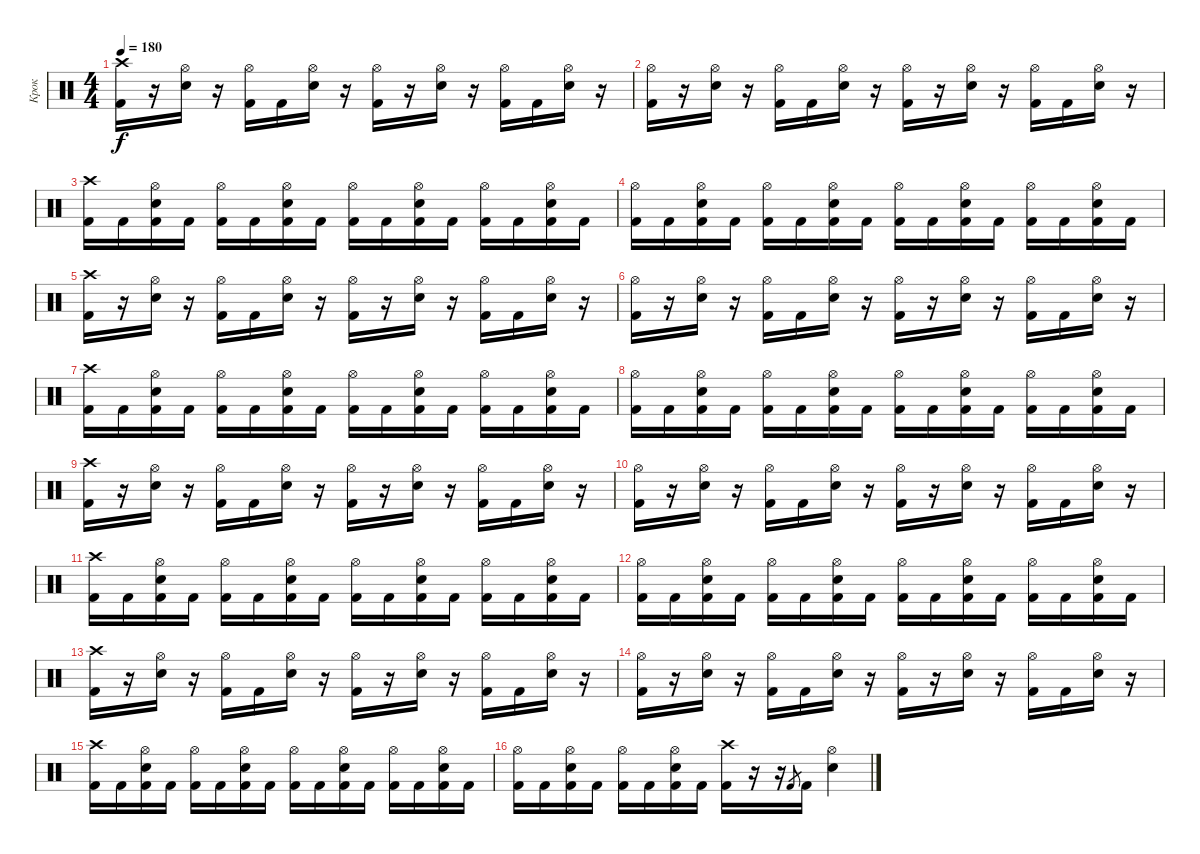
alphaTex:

\track ("Крок" "Крок") {instrument percussion}
\staff {score}
\articulation defaults
\ts (4 4)
\tempo 180
\clef neutral
\ks c
("Kick (hit) 2" "Crash high (hit)").16{dy f} r.16 ("Electric Snare (hit)" "Hi-Hat (open)").16 r.16 ("Kick (hit) 2" "Hi-Hat (open)").16 "Kick (hit) 2".16 ("Electric Snare (hit)" "Hi-Hat (open)").16 r.16 ("Kick (hit) 2" "Hi-Hat (open)").16 r.16 ("Electric Snare (hit)" "Hi-Hat (open)").16 r.16 ("Kick (hit) 2" "Hi-Hat (open)").16 "Kick (hit) 2".16 ("Electric Snare (hit)" "Hi-Hat (open)").16 r.16 |
("Kick (hit) 2" "Hi-Hat (open)").16 r.16 ("Electric Snare (hit)" "Hi-Hat (open)").16 r.16 ("Kick (hit) 2" "Hi-Hat (open)").16 "Kick (hit) 2".16 ("Electric Snare (hit)" "Hi-Hat (open)").16 r.16 ("Kick (hit) 2" "Hi-Hat (open)").16 r.16 ("Electric Snare (hit)" "Hi-Hat (open)").16 r.16 ("Kick (hit) 2" "Hi-Hat (open)").16 "Kick (hit) 2".16 ("Electric Snare (hit)" "Hi-Hat (open)").16 r.16 |
("Kick (hit) 2" "Crash high (hit)").16 "Kick (hit) 2".16 ("Kick (hit) 2" "Electric Snare (hit)" "Hi-Hat (open)").16 "Kick (hit) 2".16 ("Kick (hit) 2" "Hi-Hat (open)").16 "Kick (hit) 2".16 ("Kick (hit) 2" "Electric Snare (hit)" "Hi-Hat (open)").16 "Kick (hit) 2".16 ("Kick (hit) 2" "Hi-Hat (open)").16 "Kick (hit) 2".16 ("Kick (hit) 2" "Electric Snare (hit)" "Hi-Hat (open)").16 "Kick (hit) 2".16 ("Kick (hit) 2" "Hi-Hat (open)").16 "Kick (hit) 2".16 ("Kick (hit) 2" "Electric Snare (hit)" "Hi-Hat (open)").16 "Kick (hit) 2".16 |
("Kick (hit) 2" "Hi-Hat (open)").16 "Kick (hit) 2".16 ("Kick (hit) 2" "Electric Snare (hit)" "Hi-Hat (open)").16 "Kick (hit) 2".16 ("Kick (hit) 2" "Hi-Hat (open)").16 "Kick (hit) 2".16 ("Kick (hit) 2" "Electric Snare (hit)" "Hi-Hat (open)").16 "Kick (hit) 2".16 ("Kick (hit) 2" "Hi-Hat (open)").16 "Kick (hit) 2".16 ("Kick (hit) 2" "Electric Snare (hit)" "Hi-Hat (open)").16 "Kick (hit) 2".16 ("Kick (hit) 2" "Hi-Hat (open)").16 "Kick (hit) 2".16 ("Kick (hit) 2" "Electric Snare (hit)" "Hi-Hat (open)").16 "Kick (hit) 2".16 |
("Kick (hit) 2" "Crash high (hit)").16 r.16 ("Electric Snare (hit)" "Hi-Hat (open)").16 r.16 ("Kick (hit) 2" "Hi-Hat (open)").16 "Kick (hit) 2".16 ("Electric Snare (hit)" "Hi-Hat (open)").16 r.16 ("Kick (hit) 2" "Hi-Hat (open)").16 r.16 ("Electric Snare (hit)" "Hi-Hat (open)").16 r.16 ("Kick (hit) 2" "Hi-Hat (open)").16 "Kick (hit) 2".16 ("Electric Snare (hit)" "Hi-Hat (open)").16 r.16 |
("Kick (hit) 2" "Hi-Hat (open)").16 r.16 ("Electric Snare (hit)" "Hi-Hat (open)").16 r.16 ("Kick (hit) 2" "Hi-Hat (open)").16 "Kick (hit) 2".16 ("Electric Snare (hit)" "Hi-Hat (open)").16 r.16 ("Kick (hit) 2" "Hi-Hat (open)").16 r.16 ("Electric Snare (hit)" "Hi-Hat (open)").16 r.16 ("Kick (hit) 2" "Hi-Hat (open)").16 "Kick (hit) 2".16 ("Electric Snare (hit)" "Hi-Hat (open)").16 r.16 |
("Kick (hit) 2" "Crash high (hit)").16 "Kick (hit) 2".16 ("Kick (hit) 2" "Electric Snare (hit)" "Hi-Hat (open)").16 "Kick (hit) 2".16 ("Kick (hit) 2" "Hi-Hat (open)").16 "Kick (hit) 2".16 ("Kick (hit) 2" "Electric Snare (hit)" "Hi-Hat (open)").16 "Kick (hit) 2".16 ("Kick (hit) 2" "Hi-Hat (open)").16 "Kick (hit) 2".16 ("Kick (hit) 2" "Electric Snare (hit)" "Hi-Hat (open)").16 "Kick (hit) 2".16 ("Kick (hit) 2" "Hi-Hat (open)").16 "Kick (hit) 2".16 ("Kick (hit) 2" "Electric Snare (hit)" "Hi-Hat (open)").16 "Kick (hit) 2".16 |
("Kick (hit) 2" "Hi-Hat (open)").16 "Kick (hit) 2".16 ("Kick (hit) 2" "Electric Snare (hit)" "Hi-Hat (open)").16 "Kick (hit) 2".16 ("Kick (hit) 2" "Hi-Hat (open)").16 "Kick (hit) 2".16 ("Kick (hit) 2" "Electric Snare (hit)" "Hi-Hat (open)").16 "Kick (hit) 2".16 ("Kick (hit) 2" "Hi-Hat (open)").16 "Kick (hit) 2".16 ("Kick (hit) 2" "Electric Snare (hit)" "Hi-Hat (open)").16 "Kick (hit) 2".16 ("Kick (hit) 2" "Hi-Hat (open)").16 "Kick (hit) 2".16 ("Kick (hit) 2" "Electric Snare (hit)" "Hi-Hat (open)").16 "Kick (hit) 2".16 |
("Kick (hit) 2" "Crash high (hit)").16 r.16 ("Electric Snare (hit)" "Hi-Hat (open)").16 r.16 ("Kick (hit) 2" "Hi-Hat (open)").16 "Kick (hit) 2".16 ("Electric Snare (hit)" "Hi-Hat (open)").16 r.16 ("Kick (hit) 2" "Hi-Hat (open)").16 r.16 ("Electric Snare (hit)" "Hi-Hat (open)").16 r.16 ("Kick (hit) 2" "Hi-Hat (open)").16 "Kick (hit) 2".16 ("Electric Snare (hit)" "Hi-Hat (open)").16 r.16 |
("Kick (hit) 2" "Hi-Hat (open)").16 r.16 ("Electric Snare (hit)" "Hi-Hat (open)").16 r.16 ("Kick (hit) 2" "Hi-Hat (open)").16 "Kick (hit) 2".16 ("Electric Snare (hit)" "Hi-Hat (open)").16 r.16 ("Kick (hit) 2" "Hi-Hat (open)").16 r.16 ("Electric Snare (hit)" "Hi-Hat (open)").16 r.16 ("Kick (hit) 2" "Hi-Hat (open)").16 "Kick (hit) 2".16 ("Electric Snare (hit)" "Hi-Hat (open)").16 r.16 |
("Kick (hit) 2" "Crash high (hit)").16 "Kick (hit) 2".16 ("Kick (hit) 2" "Electric Snare (hit)" "Hi-Hat (open)").16 "Kick (hit) 2".16 ("Kick (hit) 2" "Hi-Hat (open)").16 "Kick (hit) 2".16 ("Kick (hit) 2" "Electric Snare (hit)" "Hi-Hat (open)").16 "Kick (hit) 2".16 ("Kick (hit) 2" "Hi-Hat (open)").16 "Kick (hit) 2".16 ("Kick (hit) 2" "Electric Snare (hit)" "Hi-Hat (open)").16 "Kick (hit) 2".16 ("Kick (hit) 2" "Hi-Hat (open)").16 "Kick (hit) 2".16 ("Kick (hit) 2" "Electric Snare (hit)" "Hi-Hat (open)").16 "Kick (hit) 2".16 |
("Kick (hit) 2" "Hi-Hat (open)").16 "Kick (hit) 2".16 ("Kick (hit) 2" "Electric Snare (hit)" "Hi-Hat (open)").16 "Kick (hit) 2".16 ("Kick (hit) 2" "Hi-Hat (open)").16 "Kick (hit) 2".16 ("Kick (hit) 2" "Electric Snare (hit)" "Hi-Hat (open)").16 "Kick (hit) 2".16 ("Kick (hit) 2" "Hi-Hat (open)").16 "Kick (hit) 2".16 ("Kick (hit) 2" "Electric Snare (hit)" "Hi-Hat (open)").16 "Kick (hit) 2".16 ("Kick (hit) 2" "Hi-Hat (open)").16 "Kick (hit) 2".16 ("Kick (hit) 2" "Electric Snare (hit)" "Hi-Hat (open)").16 "Kick (hit) 2".16 |
("Kick (hit) 2" "Crash high (hit)").16 r.16 ("Electric Snare (hit)" "Hi-Hat (open)").16 r.16 ("Kick (hit) 2" "Hi-Hat (open)").16 "Kick (hit) 2".16 ("Electric Snare (hit)" "Hi-Hat (open)").16 r.16 ("Kick (hit) 2" "Hi-Hat (open)").16 r.16 ("Electric Snare (hit)" "Hi-Hat (open)").16 r.16 ("Kick (hit) 2" "Hi-Hat (open)").16 "Kick (hit) 2".16 ("Electric Snare (hit)" "Hi-Hat (open)").16 r.16 |
("Kick (hit) 2" "Hi-Hat (open)").16 r.16 ("Electric Snare (hit)" "Hi-Hat (open)").16 r.16 ("Kick (hit) 2" "Hi-Hat (open)").16 "Kick (hit) 2".16 ("Electric Snare (hit)" "Hi-Hat (open)").16 r.16 ("Kick (hit) 2" "Hi-Hat (open)").16 r.16 ("Electric Snare (hit)" "Hi-Hat (open)").16 r.16 ("Kick (hit) 2" "Hi-Hat (open)").16 "Kick (hit) 2".16 ("Electric Snare (hit)" "Hi-Hat (open)").16 r.16 |
("Kick (hit) 2" "Crash high (hit)").16 "Kick (hit) 2".16 ("Kick (hit) 2" "Electric Snare (hit)" "Hi-Hat (open)").16 "Kick (hit) 2".16 ("Kick (hit) 2" "Hi-Hat (open)").16 "Kick (hit) 2".16 ("Kick (hit) 2" "Electric Snare (hit)" "Hi-Hat (open)").16 "Kick (hit) 2".16 ("Kick (hit) 2" "Hi-Hat (open)").16 "Kick (hit) 2".16 ("Kick (hit) 2" "Electric Snare (hit)" "Hi-Hat (open)").16 "Kick (hit) 2".16 ("Kick (hit) 2" "Hi-Hat (open)").16 "Kick (hit) 2".16 ("Kick (hit) 2" "Electric Snare (hit)" "Hi-Hat (open)").16 "Kick (hit) 2".16 |
("Kick (hit) 2" "Hi-Hat (open)").16 "Kick (hit) 2".16 ("Kick (hit) 2" "Electric Snare (hit)" "Hi-Hat (open)").16 "Kick (hit) 2".16 ("Kick (hit) 2" "Hi-Hat (open)").16 "Kick (hit) 2".16 ("Kick (hit) 2" "Electric Snare (hit)" "Hi-Hat (open)").16 "Kick (hit) 2".16 ("Kick (hit) 2" "Crash high (hit)").16 r.16 r.16 "Kick (hit) 2".8{gr} "Kick (hit) 2".16 ("Electric Snare (hit)" "Hi-Hat (open)").4
